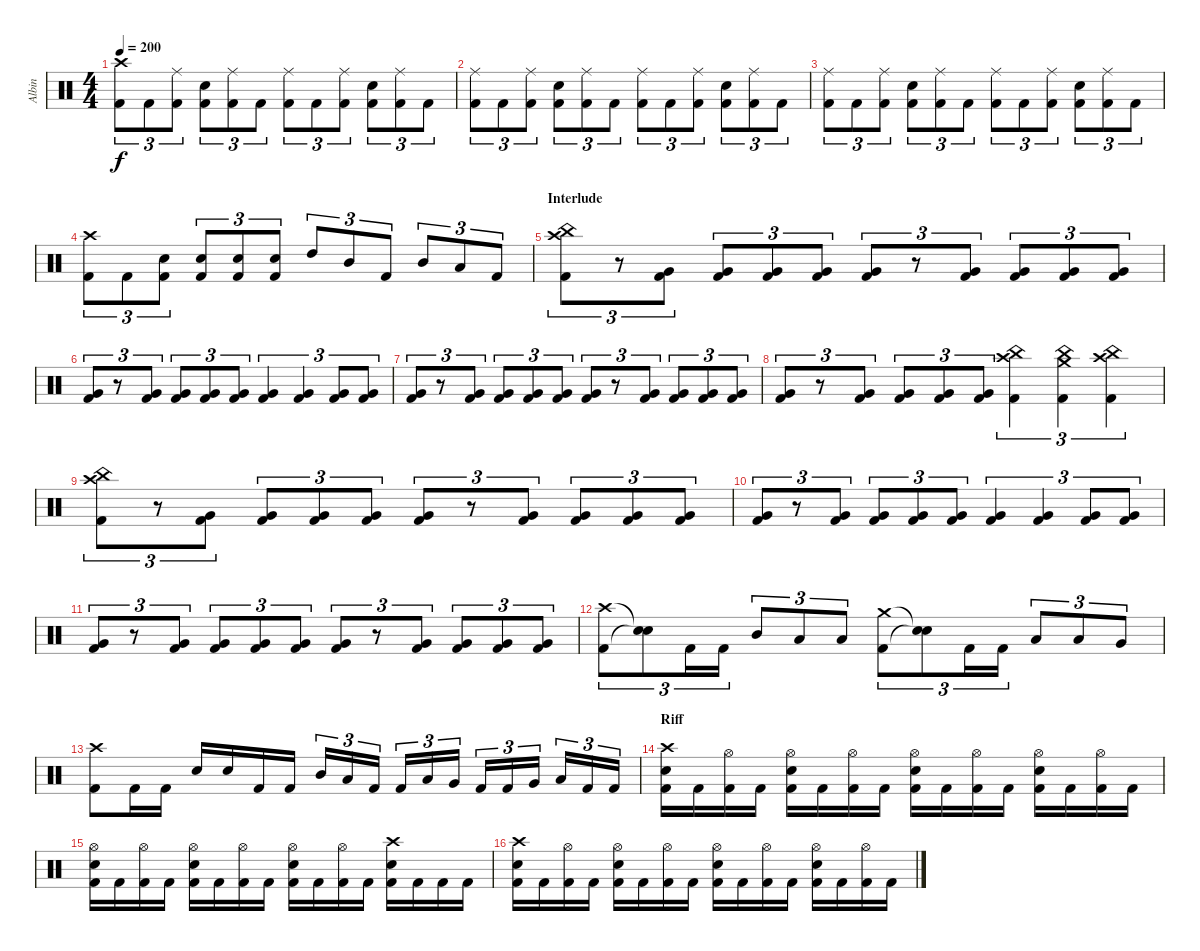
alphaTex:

\track ("Albin" "Albin") {instrument percussion}
\staff {score}
\articulation defaults
\ts (4 4)
\tempo 200
\clef neutral
\ks c
("Crash high (hit)" "Kick (hit) 2").8{tu (3 2) dy f} "Kick (hit) 2".8{tu (3 2)} ("Ride (middle)" "Kick (hit) 2").8{tu (3 2)} ("Snare (hit) 2" "Kick (hit) 2").8{tu (3 2)} ("Ride (middle)" "Kick (hit) 2").8{tu (3 2)} "Kick (hit) 2".8{tu (3 2)} ("Ride (middle)" "Kick (hit) 2").8{tu (3 2)} "Kick (hit) 2".8{tu (3 2)} ("Ride (middle)" "Kick (hit) 2").8{tu (3 2)} ("Snare (hit) 2" "Kick (hit) 2").8{tu (3 2)} ("Ride (middle)" "Kick (hit) 2").8{tu (3 2)} "Kick (hit) 2".8{tu (3 2)} |
("Ride (middle)" "Kick (hit) 2").8{tu (3 2)} "Kick (hit) 2".8{tu (3 2)} ("Ride (middle)" "Kick (hit) 2").8{tu (3 2)} ("Snare (hit) 2" "Kick (hit) 2").8{tu (3 2)} ("Ride (middle)" "Kick (hit) 2").8{tu (3 2)} "Kick (hit) 2".8{tu (3 2)} ("Ride (middle)" "Kick (hit) 2").8{tu (3 2)} "Kick (hit) 2".8{tu (3 2)} ("Ride (middle)" "Kick (hit) 2").8{tu (3 2)} ("Snare (hit) 2" "Kick (hit) 2").8{tu (3 2)} ("Ride (middle)" "Kick (hit) 2").8{tu (3 2)} "Kick (hit) 2".8{tu (3 2)} |
("Ride (middle)" "Kick (hit) 2").8{tu (3 2)} "Kick (hit) 2".8{tu (3 2)} ("Ride (middle)" "Kick (hit) 2").8{tu (3 2)} ("Snare (hit) 2" "Kick (hit) 2").8{tu (3 2)} ("Ride (middle)" "Kick (hit) 2").8{tu (3 2)} "Kick (hit) 2".8{tu (3 2)} ("Ride (middle)" "Kick (hit) 2").8{tu (3 2)} "Kick (hit) 2".8{tu (3 2)} ("Ride (middle)" "Kick (hit) 2").8{tu (3 2)} ("Snare (hit) 2" "Kick (hit) 2").8{tu (3 2)} ("Ride (middle)" "Kick (hit) 2").8{tu (3 2)} "Kick (hit) 2".8{tu (3 2)} |
("Crash high (hit)" "Kick (hit) 2").8{tu (3 2)} "Kick (hit) 2".8{tu (3 2)} ("Snare (hit) 2" "Kick (hit) 2").8{tu (3 2)} ("Snare (hit) 2" "Kick (hit) 2").8{tu (3 2)} ("Snare (hit) 2" "Kick (hit) 2").8{tu (3 2)} ("Snare (hit) 2" "Kick (hit) 2").8{tu (3 2)} "High Tom (hit)".8{tu (3 2)} "Mid Tom (hit)".8{tu (3 2)} "Kick (hit) 2".8{tu (3 2)} "Mid Tom (hit)".8{tu (3 2)} "Low Tom (hit)".8{tu (3 2)} "Kick (hit) 2".8{tu (3 2)} |
\section ("" "Interlude")
("Crash high (hit)" "China (hit)" "Kick (hit) 2").8{tu (3 2)} r.8{tu (3 2)} ("Very Low Tom (hit)" "Kick (hit) 2").8{tu (3 2)} ("Very Low Tom (hit)" "Kick (hit) 2").8{tu (3 2)} ("Very Low Tom (hit)" "Kick (hit) 2").8{tu (3 2)} ("Very Low Tom (hit)" "Kick (hit) 2").8{tu (3 2)} ("Very Low Tom (hit)" "Kick (hit) 2").8{tu (3 2)} r.8{tu (3 2)} ("Very Low Tom (hit)" "Kick (hit) 2").8{tu (3 2)} ("Very Low Tom (hit)" "Kick (hit) 2").8{tu (3 2)} ("Very Low Tom (hit)" "Kick (hit) 2").8{tu (3 2)} ("Very Low Tom (hit)" "Kick (hit) 2").8{tu (3 2)} |
("Very Low Tom (hit)" "Kick (hit) 2").8{tu (3 2)} r.8{tu (3 2)} ("Very Low Tom (hit)" "Kick (hit) 2").8{tu (3 2)} ("Very Low Tom (hit)" "Kick (hit) 2").8{tu (3 2)} ("Very Low Tom (hit)" "Kick (hit) 2").8{tu (3 2)} ("Very Low Tom (hit)" "Kick (hit) 2").8{tu (3 2)} ("Very Low Tom (hit)" "Kick (hit) 2").4{tu (3 2)} ("Very Low Tom (hit)" "Kick (hit) 2").4{tu (3 2)} ("Very Low Tom (hit)" "Kick (hit) 2").8{tu (3 2)} ("Very Low Tom (hit)" "Kick (hit) 2").8{tu (3 2)} |
("Very Low Tom (hit)" "Kick (hit) 2").8{tu (3 2)} r.8{tu (3 2)} ("Very Low Tom (hit)" "Kick (hit) 2").8{tu (3 2)} ("Very Low Tom (hit)" "Kick (hit) 2").8{tu (3 2)} ("Very Low Tom (hit)" "Kick (hit) 2").8{tu (3 2)} ("Very Low Tom (hit)" "Kick (hit) 2").8{tu (3 2)} ("Very Low Tom (hit)" "Kick (hit) 2").8{tu (3 2)} r.8{tu (3 2)} ("Very Low Tom (hit)" "Kick (hit) 2").8{tu (3 2)} ("Very Low Tom (hit)" "Kick (hit) 2").8{tu (3 2)} ("Very Low Tom (hit)" "Kick (hit) 2").8{tu (3 2)} ("Very Low Tom (hit)" "Kick (hit) 2").8{tu (3 2)} |
("Very Low Tom (hit)" "Kick (hit) 2").8{tu (3 2)} r.8{tu (3 2)} ("Very Low Tom (hit)" "Kick (hit) 2").8{tu (3 2)} ("Very Low Tom (hit)" "Kick (hit) 2").8{tu (3 2)} ("Very Low Tom (hit)" "Kick (hit) 2").8{tu (3 2)} ("Very Low Tom (hit)" "Kick (hit) 2").8{tu (3 2)} ("Crash high (hit)" "China (hit)" "Kick (hit) 2").4{tu (3 2)} ("Crash medium (hit)" "China (hit)" "Kick (hit) 2").4{tu (3 2)} ("Crash high (hit)" "China (hit)" "Kick (hit) 2").4{tu (3 2)} |
("Crash high (hit)" "China (hit)" "Kick (hit) 2").8{tu (3 2)} r.8{tu (3 2)} ("Very Low Tom (hit)" "Kick (hit) 2").8{tu (3 2)} ("Very Low Tom (hit)" "Kick (hit) 2").8{tu (3 2)} ("Very Low Tom (hit)" "Kick (hit) 2").8{tu (3 2)} ("Very Low Tom (hit)" "Kick (hit) 2").8{tu (3 2)} ("Very Low Tom (hit)" "Kick (hit) 2").8{tu (3 2)} r.8{tu (3 2)} ("Very Low Tom (hit)" "Kick (hit) 2").8{tu (3 2)} ("Very Low Tom (hit)" "Kick (hit) 2").8{tu (3 2)} ("Very Low Tom (hit)" "Kick (hit) 2").8{tu (3 2)} ("Very Low Tom (hit)" "Kick (hit) 2").8{tu (3 2)} |
("Very Low Tom (hit)" "Kick (hit) 2").8{tu (3 2)} r.8{tu (3 2)} ("Very Low Tom (hit)" "Kick (hit) 2").8{tu (3 2)} ("Very Low Tom (hit)" "Kick (hit) 2").8{tu (3 2)} ("Very Low Tom (hit)" "Kick (hit) 2").8{tu (3 2)} ("Very Low Tom (hit)" "Kick (hit) 2").8{tu (3 2)} ("Very Low Tom (hit)" "Kick (hit) 2").4{tu (3 2)} ("Very Low Tom (hit)" "Kick (hit) 2").4{tu (3 2)} ("Very Low Tom (hit)" "Kick (hit) 2").8{tu (3 2)} ("Very Low Tom (hit)" "Kick (hit) 2").8{tu (3 2)} |
("Very Low Tom (hit)" "Kick (hit) 2").8{tu (3 2)} r.8{tu (3 2)} ("Very Low Tom (hit)" "Kick (hit) 2").8{tu (3 2)} ("Very Low Tom (hit)" "Kick (hit) 2").8{tu (3 2)} ("Very Low Tom (hit)" "Kick (hit) 2").8{tu (3 2)} ("Very Low Tom (hit)" "Kick (hit) 2").8{tu (3 2)} ("Very Low Tom (hit)" "Kick (hit) 2").8{tu (3 2)} r.8{tu (3 2)} ("Very Low Tom (hit)" "Kick (hit) 2").8{tu (3 2)} ("Very Low Tom (hit)" "Kick (hit) 2").8{tu (3 2)} ("Very Low Tom (hit)" "Kick (hit) 2").8{tu (3 2)} ("Very Low Tom (hit)" "Kick (hit) 2").8{tu (3 2)} |
("Crash high (hit)" "Kick (hit) 2").8{tu (3 2)} ("Snare (hit)"{t} "Snare (hit)"{t}).8{tu (3 2)} "Kick (hit) 2".16{tu (3 2)} "Kick (hit) 2".16{tu (3 2)} "Mid Tom (hit)".8{tu (3 2)} "Low Tom (hit)".8{tu (3 2)} "Low Tom (hit)".8{tu (3 2)} ("Crash medium (hit)" "Kick (hit) 2").8{tu (3 2)} ("Snare (hit)"{t} "Snare (hit)"{t}).8{tu (3 2)} "Kick (hit) 2".16{tu (3 2)} "Kick (hit) 2".16{tu (3 2)} "Low Tom (hit)".8{tu (3 2)} "Low Tom (hit)".8{tu (3 2)} "Very Low Tom (hit)".8{tu (3 2)} |
("Crash high (hit)" "Kick (hit) 2").8 "Kick (hit) 2".16 "Kick (hit) 2".16 "Snare (hit) 2".16 "Snare (hit) 2".16 "Kick (hit) 2".16 "Kick (hit) 2".16 "Mid Tom (hit)".16{tu (3 2)} "Low Tom (hit)".16{tu (3 2)} "Kick (hit) 2".16{tu (3 2)} "Kick (hit) 2".16{tu (3 2)} "Low Tom (hit)".16{tu (3 2)} "Very Low Tom (hit)".16{tu (3 2)} "Kick (hit) 2".16{tu (3 2)} "Kick (hit) 2".16{tu (3 2)} "Very Low Tom (hit)".16{tu (3 2)} "Low Floor Tom (hit)".16{tu (3 2)} "Kick (hit) 2".16{tu (3 2)} "Kick (hit) 2".16{tu (3 2)} |
\section ("" "Riff")
("Crash high (hit)" "Snare (hit) 2" "Kick (hit) 2").16 "Kick (hit) 2".16 ("Hi-Hat (open)" "Kick (hit) 2").16 "Kick (hit) 2".16 ("Hi-Hat (open)" "Snare (hit) 2" "Kick (hit) 2").16 "Kick (hit) 2".16 ("Hi-Hat (open)" "Kick (hit) 2").16 "Kick (hit) 2".16 ("Hi-Hat (open)" "Snare (hit) 2" "Kick (hit) 2").16 "Kick (hit) 2".16 ("Hi-Hat (open)" "Kick (hit) 2").16 "Kick (hit) 2".16 ("Hi-Hat (open)" "Snare (hit) 2" "Kick (hit) 2").16 "Kick (hit) 2".16 ("Hi-Hat (open)" "Kick (hit) 2").16 "Kick (hit) 2".16 |
("Hi-Hat (open)" "Snare (hit) 2" "Kick (hit) 2").16 "Kick (hit) 2".16 ("Hi-Hat (open)" "Kick (hit) 2").16 "Kick (hit) 2".16 ("Hi-Hat (open)" "Snare (hit) 2" "Kick (hit) 2").16 "Kick (hit) 2".16 ("Hi-Hat (open)" "Kick (hit) 2").16 "Kick (hit) 2".16 ("Hi-Hat (open)" "Snare (hit) 2" "Kick (hit) 2").16 "Kick (hit) 2".16 ("Hi-Hat (open)" "Kick (hit) 2").16 "Kick (hit) 2".16 ("Crash high (hit)" "Snare (hit) 2" "Kick (hit) 2").16 "Kick (hit) 2".16 "Kick (hit) 2".16 "Kick (hit) 2".16 |
("Crash high (hit)" "Snare (hit) 2" "Kick (hit) 2").16 "Kick (hit) 2".16 ("Hi-Hat (open)" "Kick (hit) 2").16 "Kick (hit) 2".16 ("Hi-Hat (open)" "Snare (hit) 2" "Kick (hit) 2").16 "Kick (hit) 2".16 ("Hi-Hat (open)" "Kick (hit) 2").16 "Kick (hit) 2".16 ("Hi-Hat (open)" "Snare (hit) 2" "Kick (hit) 2").16 "Kick (hit) 2".16 ("Hi-Hat (open)" "Kick (hit) 2").16 "Kick (hit) 2".16 ("Hi-Hat (open)" "Snare (hit) 2" "Kick (hit) 2").16 "Kick (hit) 2".16 ("Hi-Hat (open)" "Kick (hit) 2").16 "Kick (hit) 2".16
